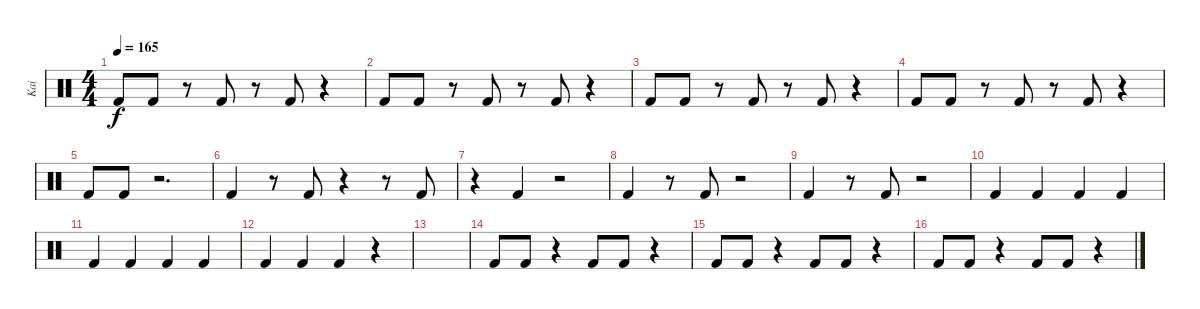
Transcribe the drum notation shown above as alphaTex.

\track ("Kai" "Kai") {instrument percussion}
\staff {score}
\articulation defaults
\ts (4 4)
\tempo 165
\clef neutral
\ks c "Kick (hit) 2".8{dy f} "Kick (hit) 2".8
r.8 "Kick (hit) 2".8 r.8 "Kick (hit) 2".8 r.4 |
"Kick (hit) 2".8 "Kick (hit) 2".8 r.8 "Kick (hit) 2".8 r.8 "Kick (hit) 2".8 r.4 |
"Kick (hit) 2".8 "Kick (hit) 2".8 r.8 "Kick (hit) 2".8 r.8 "Kick (hit) 2".8 r.4 |
"Kick (hit) 2".8 "Kick (hit) 2".8 r.8 "Kick (hit) 2".8 r.8 "Kick (hit) 2".8 r.4 |
"Kick (hit) 2".8 "Kick (hit) 2".8 r.2{d} |
"Kick (hit) 2".4 r.8 "Kick (hit) 2".8 r.4 r.8 "Kick (hit) 2".8 |
r.4 "Kick (hit) 2".4 r.2 |
"Kick (hit) 2".4 r.8 "Kick (hit) 2".8 r.2 |
"Kick (hit) 2".4 r.8 "Kick (hit) 2".8 r.2 |
"Kick (hit) 2".4 "Kick (hit) 2".4 "Kick (hit) 2".4 "Kick (hit) 2".4 |
"Kick (hit) 2".4 "Kick (hit) 2".4 "Kick (hit) 2".4 "Kick (hit) 2".4 |
"Kick (hit) 2".4 "Kick (hit) 2".4 "Kick (hit) 2".4 r.4 |
|
"Kick (hit) 2".8 "Kick (hit) 2".8 r.4 "Kick (hit) 2".8 "Kick (hit) 2".8 r.4 |
"Kick (hit) 2".8 "Kick (hit) 2".8 r.4 "Kick (hit) 2".8 "Kick (hit) 2".8 r.4 |
"Kick (hit) 2".8 "Kick (hit) 2".8 r.4 "Kick (hit) 2".8 "Kick (hit) 2".8 r.4
